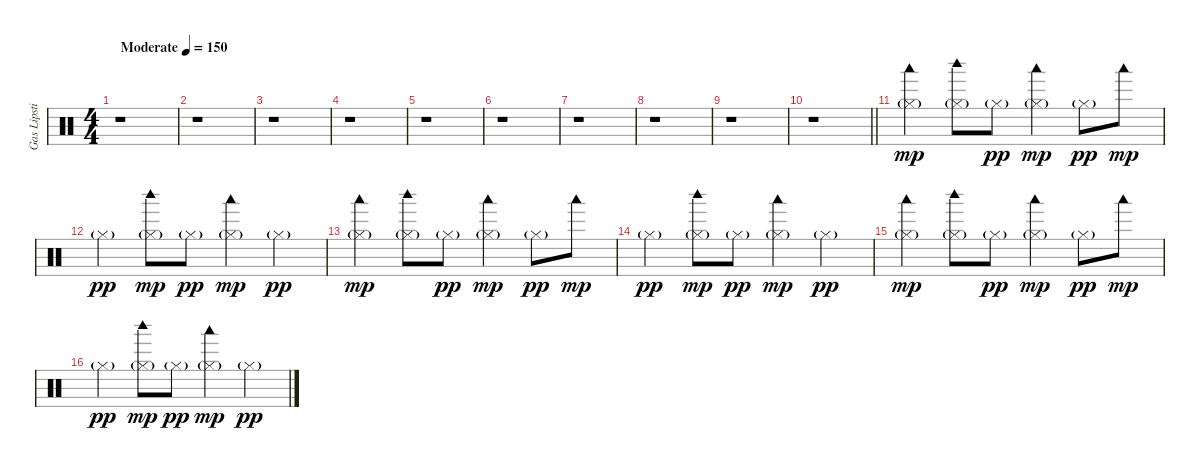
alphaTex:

\track ("Gas Lipstick" "Gas Lipsti") {instrument percussion}
\staff {score}
\articulation defaults
\ts (4 4)
\tempo (150 "Moderate")
\clef neutral
\ks c
r.1{dy mp} |
r.1 |
r.1 |
r.1 |
r.1 |
r.1 |
r.1 |
r.1 |
r.1 |
\barLineRight lightlight
r.1 |
("Hi-Hat (closed)"{g} "Woodblock low (hit)").4 ("Hi-Hat (closed)"{g} "Woodblock high (hit)").8 "Hi-Hat (closed)"{g}.8{dy pp} ("Hi-Hat (closed)"{g} "Woodblock low (hit)").4{dy mp} "Hi-Hat (closed)"{g}.8{dy pp} "Woodblock low (hit)".8{dy mp} |
"Hi-Hat (closed)"{g}.4{dy pp} ("Hi-Hat (closed)"{g} "Woodblock high (hit)").8{dy mp} "Hi-Hat (closed)"{g}.8{dy pp} ("Hi-Hat (closed)"{g} "Woodblock low (hit)").4{dy mp} "Hi-Hat (closed)"{g}.4{dy pp} |
("Hi-Hat (closed)"{g} "Woodblock low (hit)").4{dy mp} ("Hi-Hat (closed)"{g} "Woodblock high (hit)").8 "Hi-Hat (closed)"{g}.8{dy pp} ("Hi-Hat (closed)"{g} "Woodblock low (hit)").4{dy mp} "Hi-Hat (closed)"{g}.8{dy pp} "Woodblock low (hit)".8{dy mp} |
"Hi-Hat (closed)"{g}.4{dy pp} ("Hi-Hat (closed)"{g} "Woodblock high (hit)").8{dy mp} "Hi-Hat (closed)"{g}.8{dy pp} ("Hi-Hat (closed)"{g} "Woodblock low (hit)").4{dy mp} "Hi-Hat (closed)"{g}.4{dy pp} |
("Hi-Hat (closed)"{g} "Woodblock low (hit)").4{dy mp} ("Hi-Hat (closed)"{g} "Woodblock high (hit)").8 "Hi-Hat (closed)"{g}.8{dy pp} ("Hi-Hat (closed)"{g} "Woodblock low (hit)").4{dy mp} "Hi-Hat (closed)"{g}.8{dy pp} "Woodblock low (hit)".8{dy mp} |
"Hi-Hat (closed)"{g}.4{dy pp} ("Hi-Hat (closed)"{g} "Woodblock high (hit)").8{dy mp} "Hi-Hat (closed)"{g}.8{dy pp} ("Hi-Hat (closed)"{g} "Woodblock low (hit)").4{dy mp} "Hi-Hat (closed)"{g}.4{dy pp}
